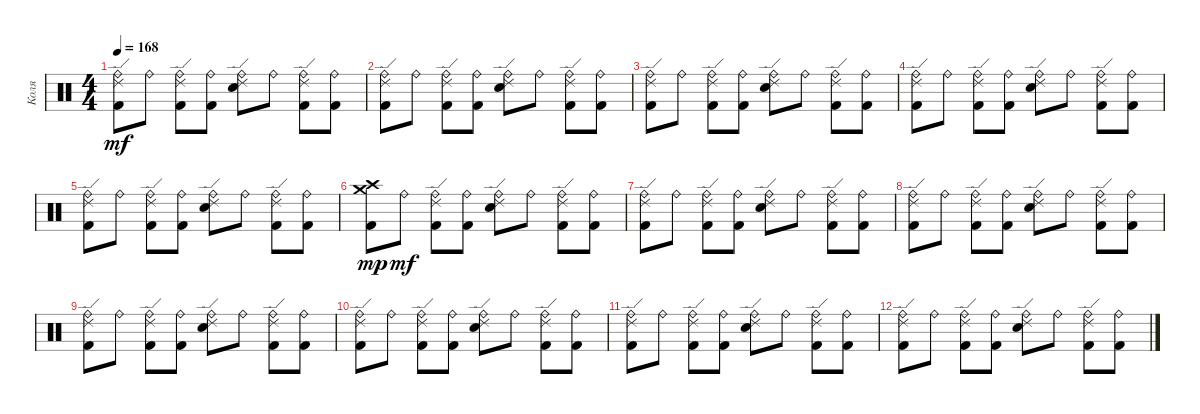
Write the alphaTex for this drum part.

\track ("Коля" "Коля") {instrument percussion}
\staff {score}
\articulation defaults
\ts (4 4)
\tempo 168
\clef neutral
\ks c
("Kick (hit) 2" "Ride (bell)" "Ride (edge) 2").8{dy mf} "Ride (bell)".8 ("Kick (hit) 2" "Ride (bell)" "Ride (edge) 2").8 ("Kick (hit) 2" "Ride (bell)").8 ("Snare (hit) 2" "Ride (bell)" "Ride (edge) 2").8 "Ride (bell)".8 ("Kick (hit) 2" "Ride (bell)" "Ride (edge) 2").8 ("Kick (hit) 2" "Ride (bell)").8 |
("Kick (hit) 2" "Ride (bell)" "Ride (edge) 2").8 "Ride (bell)".8 ("Kick (hit) 2" "Ride (bell)" "Ride (edge) 2").8 ("Kick (hit) 2" "Ride (bell)").8 ("Snare (hit) 2" "Ride (bell)" "Ride (edge) 2").8 "Ride (bell)".8 ("Kick (hit) 2" "Ride (bell)" "Ride (edge) 2").8 ("Kick (hit) 2" "Ride (bell)").8 |
("Kick (hit) 2" "Ride (bell)" "Ride (edge) 2").8 "Ride (bell)".8 ("Kick (hit) 2" "Ride (bell)" "Ride (edge) 2").8 ("Kick (hit) 2" "Ride (bell)").8 ("Snare (hit) 2" "Ride (bell)" "Ride (edge) 2").8 "Ride (bell)".8 ("Kick (hit) 2" "Ride (bell)" "Ride (edge) 2").8 ("Kick (hit) 2" "Ride (bell)").8 |
("Kick (hit) 2" "Ride (bell)" "Ride (edge) 2").8 "Ride (bell)".8 ("Kick (hit) 2" "Ride (bell)" "Ride (edge) 2").8 ("Kick (hit) 2" "Ride (bell)").8 ("Snare (hit) 2" "Ride (bell)" "Ride (edge) 2").8 "Ride (bell)".8 ("Kick (hit) 2" "Ride (bell)" "Ride (edge) 2").8 ("Kick (hit) 2" "Ride (bell)").8 |
("Kick (hit) 2" "Ride (bell)" "Ride (edge) 2").8 "Ride (bell)".8 ("Kick (hit) 2" "Ride (bell)" "Ride (edge) 2").8 ("Kick (hit) 2" "Ride (bell)").8 ("Snare (hit) 2" "Ride (bell)" "Ride (edge) 2").8 "Ride (bell)".8 ("Kick (hit) 2" "Ride (bell)" "Ride (edge) 2").8 ("Kick (hit) 2" "Ride (bell)").8 |
("Kick (hit) 2" "Crash medium (hit)" "Crash high (hit)").8{dy mp} "Ride (bell)".8{dy mf} ("Kick (hit) 2" "Ride (bell)" "Ride (edge) 2").8 ("Kick (hit) 2" "Ride (bell)").8 ("Snare (hit) 2" "Ride (bell)" "Ride (edge) 2").8 "Ride (bell)".8 ("Kick (hit) 2" "Ride (bell)" "Ride (edge) 2").8 ("Kick (hit) 2" "Ride (bell)").8 |
("Kick (hit) 2" "Ride (bell)" "Ride (edge) 2").8 "Ride (bell)".8 ("Kick (hit) 2" "Ride (bell)" "Ride (edge) 2").8 ("Kick (hit) 2" "Ride (bell)").8 ("Snare (hit) 2" "Ride (bell)" "Ride (edge) 2").8 "Ride (bell)".8 ("Kick (hit) 2" "Ride (bell)" "Ride (edge) 2").8 ("Kick (hit) 2" "Ride (bell)").8 |
("Kick (hit) 2" "Ride (bell)" "Ride (edge) 2").8 "Ride (bell)".8 ("Kick (hit) 2" "Ride (bell)" "Ride (edge) 2").8 ("Kick (hit) 2" "Ride (bell)").8 ("Snare (hit) 2" "Ride (bell)" "Ride (edge) 2").8 "Ride (bell)".8 ("Kick (hit) 2" "Ride (bell)" "Ride (edge) 2").8 ("Kick (hit) 2" "Ride (bell)").8 |
("Kick (hit) 2" "Ride (bell)" "Ride (edge) 2").8 "Ride (bell)".8 ("Kick (hit) 2" "Ride (bell)" "Ride (edge) 2").8 ("Kick (hit) 2" "Ride (bell)").8 ("Snare (hit) 2" "Ride (bell)" "Ride (edge) 2").8 "Ride (bell)".8 ("Kick (hit) 2" "Ride (bell)" "Ride (edge) 2").8 ("Kick (hit) 2" "Ride (bell)").8 |
("Kick (hit) 2" "Ride (bell)" "Ride (edge) 2").8 "Ride (bell)".8 ("Kick (hit) 2" "Ride (bell)" "Ride (edge) 2").8 ("Kick (hit) 2" "Ride (bell)").8 ("Snare (hit) 2" "Ride (bell)" "Ride (edge) 2").8 "Ride (bell)".8 ("Kick (hit) 2" "Ride (bell)" "Ride (edge) 2").8 ("Kick (hit) 2" "Ride (bell)").8 |
("Kick (hit) 2" "Ride (bell)" "Ride (edge) 2").8 "Ride (bell)".8 ("Kick (hit) 2" "Ride (bell)" "Ride (edge) 2").8 ("Kick (hit) 2" "Ride (bell)").8 ("Snare (hit) 2" "Ride (bell)" "Ride (edge) 2").8 "Ride (bell)".8 ("Kick (hit) 2" "Ride (bell)" "Ride (edge) 2").8 ("Kick (hit) 2" "Ride (bell)").8 |
("Kick (hit) 2" "Ride (bell)" "Ride (edge) 2").8 "Ride (bell)".8 ("Kick (hit) 2" "Ride (bell)" "Ride (edge) 2").8 ("Kick (hit) 2" "Ride (bell)").8 ("Snare (hit) 2" "Ride (bell)" "Ride (edge) 2").8 "Ride (bell)".8 ("Kick (hit) 2" "Ride (bell)" "Ride (edge) 2").8 ("Kick (hit) 2" "Ride (bell)").8
